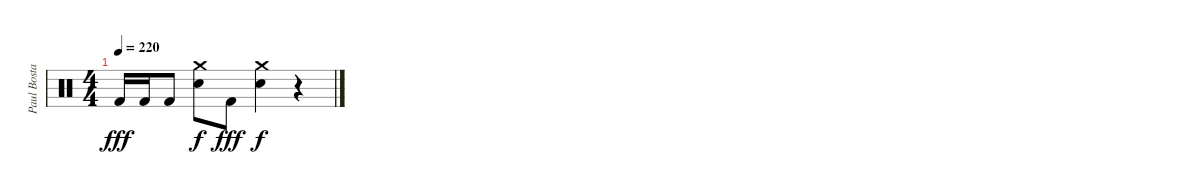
\track ("Paul Bostaph" "Paul Bosta") {instrument percussion}
\staff {score}
\articulation defaults
\ts (4 4)
\tempo 220
\clef neutral
\ks c "Kick (hit) 2".16{dy fff} "Kick (hit) 2".16 "Kick (hit) 2".8
("Crash medium (hit)" "Snare (hit) 2").8{dy f} "Kick (hit) 2".8{dy fff} ("Crash medium (hit)" "Snare (hit) 2").4{dy f} r.4
